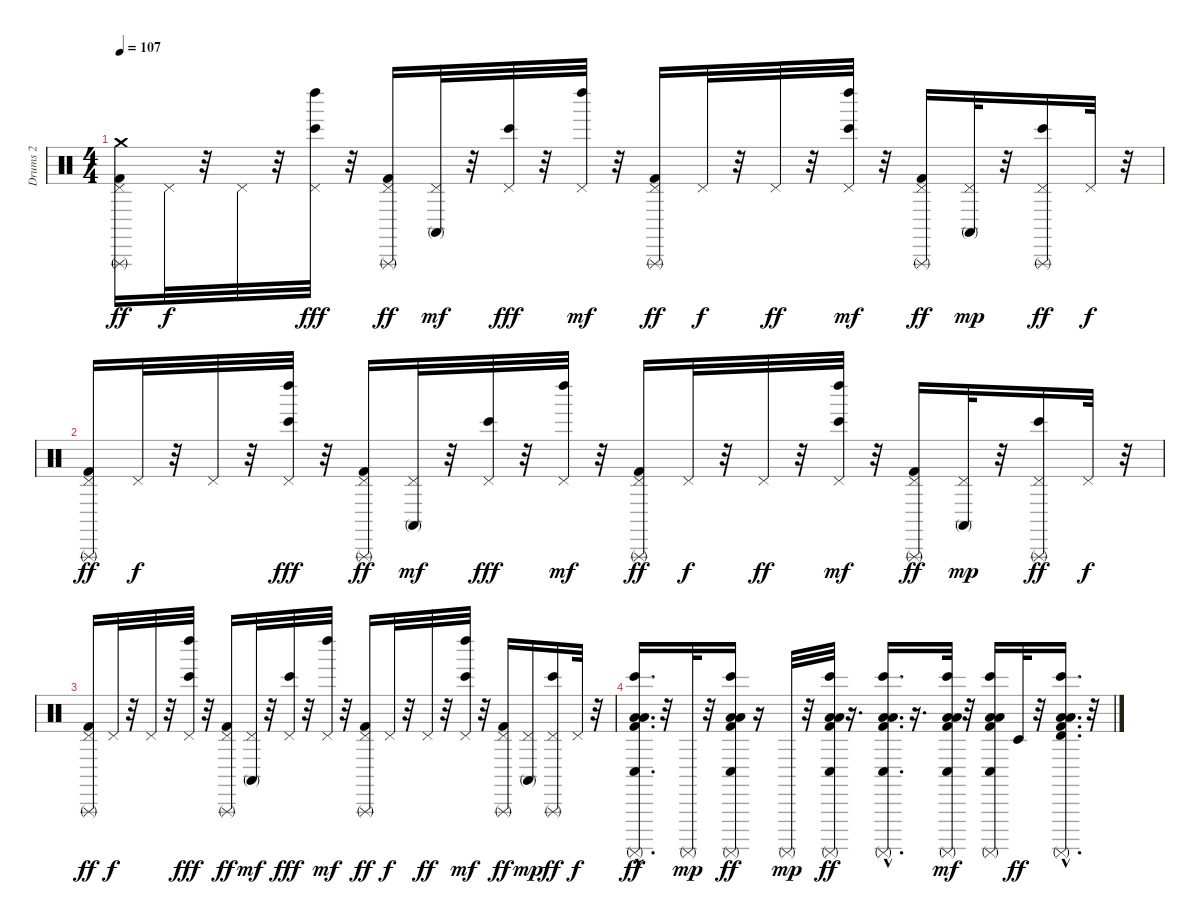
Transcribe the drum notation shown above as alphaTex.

\track ("Drums 2" "Drums 2") {instrument percussion}
\staff {score}
\articulation defaults
\ts (4 4)
\tempo 107
\clef neutral
\ks c
("Kick (hit) 2" "Pedal Hi-Hat (hit)" "Triangle (rnute)" "Crash medium (hit)").16{dy ff} "Pedal Hi-Hat (hit)".32{dy f} r.32 "Pedal Hi-Hat (hit)".32 r.32 ("Pedal Hi-Hat (hit)" "Bongo High (hit)" "Left Maraca (hit)").32{dy fff} r.32 ("Kick (hit) 2" "Pedal Hi-Hat (hit)" "Triangle (rnute)").16{dy ff} ("Pedal Hi-Hat (hit)" "Conga high (mute)").32{dy mf} r.32 ("Pedal Hi-Hat (hit)" "Bongo High (hit)").32{dy fff} r.32 ("Pedal Hi-Hat (hit)" "Left Maraca (hit)").32{dy mf} r.32 ("Kick (hit) 2" "Pedal Hi-Hat (hit)" "Triangle (rnute)").16{dy ff} "Pedal Hi-Hat (hit)".32{dy f} r.32 "Pedal Hi-Hat (hit)".32{dy ff} r.32 ("Pedal Hi-Hat (hit)" "Bongo High (hit)" "Left Maraca (hit)").32{dy mf} r.32 ("Kick (hit) 2" "Pedal Hi-Hat (hit)" "Triangle (rnute)").16{dy ff} ("Pedal Hi-Hat (hit)" "Conga high (mute)").32{dy mp} r.32 ("Pedal Hi-Hat (hit)" "Bongo High (hit)" "Triangle (rnute)").16{dy ff} "Pedal Hi-Hat (hit)".32{dy f} r.32 |
("Kick (hit) 2" "Pedal Hi-Hat (hit)" "Triangle (rnute)").16{dy ff} "Pedal Hi-Hat (hit)".32{dy f} r.32 "Pedal Hi-Hat (hit)".32 r.32 ("Pedal Hi-Hat (hit)" "Bongo High (hit)" "Left Maraca (hit)").32{dy fff} r.32 ("Kick (hit) 2" "Pedal Hi-Hat (hit)" "Triangle (rnute)").16{dy ff} ("Pedal Hi-Hat (hit)" "Conga high (mute)").32{dy mf} r.32 ("Pedal Hi-Hat (hit)" "Bongo High (hit)").32{dy fff} r.32 ("Pedal Hi-Hat (hit)" "Left Maraca (hit)").32{dy mf} r.32 ("Kick (hit) 2" "Pedal Hi-Hat (hit)" "Triangle (rnute)").16{dy ff} "Pedal Hi-Hat (hit)".32{dy f} r.32 "Pedal Hi-Hat (hit)".32{dy ff} r.32 ("Pedal Hi-Hat (hit)" "Bongo High (hit)" "Left Maraca (hit)").32{dy mf} r.32 ("Kick (hit) 2" "Pedal Hi-Hat (hit)" "Triangle (rnute)").16{dy ff} ("Pedal Hi-Hat (hit)" "Conga high (mute)").32{dy mp} r.32 ("Pedal Hi-Hat (hit)" "Bongo High (hit)" "Triangle (rnute)").16{dy ff} "Pedal Hi-Hat (hit)".32{dy f} r.32 |
("Kick (hit) 2" "Pedal Hi-Hat (hit)" "Triangle (rnute)").16{dy ff} "Pedal Hi-Hat (hit)".32{dy f} r.32 "Pedal Hi-Hat (hit)".32 r.32 ("Pedal Hi-Hat (hit)" "Bongo High (hit)" "Left Maraca (hit)").32{dy fff} r.32 ("Kick (hit) 2" "Pedal Hi-Hat (hit)" "Triangle (rnute)").16{dy ff} ("Pedal Hi-Hat (hit)" "Conga high (mute)").32{dy mf} r.32 ("Pedal Hi-Hat (hit)" "Bongo High (hit)").32{dy fff} r.32 ("Pedal Hi-Hat (hit)" "Left Maraca (hit)").32{dy mf} r.32 ("Kick (hit) 2" "Pedal Hi-Hat (hit)" "Triangle (rnute)").16{dy ff} "Pedal Hi-Hat (hit)".32{dy f} r.32 "Pedal Hi-Hat (hit)".32{dy ff} r.32 ("Pedal Hi-Hat (hit)" "Bongo High (hit)" "Left Maraca (hit)").32{dy mf} r.32 ("Kick (hit) 2" "Pedal Hi-Hat (hit)" "Triangle (rnute)").16{dy ff} ("Pedal Hi-Hat (hit)" "Conga high (mute)").16{dy mp} ("Pedal Hi-Hat (hit)" "Bongo High (hit)" "Triangle (rnute)").16{dy ff} "Pedal Hi-Hat (hit)".32{dy f} r.32 |
("Surdo (mute)"{hac} "Kick (hit) 2"{hac} "Low Tom (hit)"{hac} "Low Floor Tom (hit)"{hac} "Bongo High (hit)"{hac} "Conga low (hit)"{hac}).16{d dy ff} r.32 "Surdo (mute)".32{dy mp} r.32 ("Kick (hit) 2" "Surdo (mute)" "Low Floor Tom (hit)" "Low Tom (hit)" "Conga low (hit)" "Bongo High (hit)").16{dy ff} r.16 "Surdo (mute)".32{dy mp} r.32 ("Surdo (mute)" "Kick (hit) 2" "Low Tom (hit)" "Low Floor Tom (hit)" "Conga low (hit)" "Bongo High (hit)").32{dy ff} r.16{d} ("Surdo (mute)"{hac} "Kick (hit) 2"{hac} "Low Tom (hit)"{hac} "Low Floor Tom (hit)"{hac} "Conga low (hit)"{hac} "Bongo High (hit)"{hac}).16{d} r.16{d} ("Surdo (mute)" "Kick (hit) 2" "Low Tom (hit)" "Low Floor Tom (hit)" "Bongo High (hit)" "Conga low (hit)").32{dy mf} r.32 ("Surdo (mute)" "Kick (hit) 2" "Low Tom (hit)" "Low Floor Tom (hit)" "Bongo High (hit)" "Conga low (hit)").16 "Timbale low (hit)".32{dy ff} r.32 ("Kick (hit) 2"{hac} "Surdo (mute)"{hac} "Low Tom (hit)"{hac} "Low Floor Tom (hit)"{hac} "Bongo High (hit)"{hac} "Timbale high (hit)"{hac}).16{d} r.32
